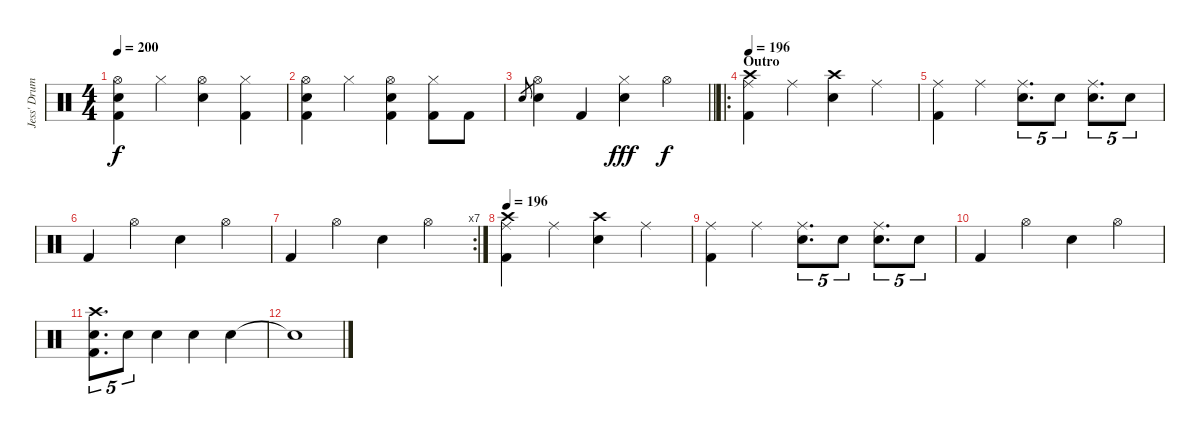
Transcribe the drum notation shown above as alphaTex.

\track ("Jess' Drums" "Jess' Drum") {instrument percussion}
\staff {score}
\articulation defaults
\ts (4 4)
\tempo 200
\clef neutral
\ks c
("Hi-Hat (open)" "Snare (hit) 2" "Kick (hit) 2").4{dy f} "Hi-Hat (closed)".4 ("Hi-Hat (open)" "Snare (hit) 2").4 ("Hi-Hat (closed)" "Kick (hit) 2").4 |
("Hi-Hat (open)" "Snare (hit) 2" "Kick (hit) 2").4 "Hi-Hat (closed)".4 ("Hi-Hat (open)" "Snare (hit) 2" "Kick (hit) 2").4 ("Hi-Hat (closed)" "Kick (hit) 2").8 "Kick (hit) 2".8 |
\barLineRight lightlight "Snare (hit) 2".8{gr}
("Hi-Hat (open)" "Snare (hit) 2").4 "Kick (hit) 2".4 ("Hi-Hat (closed)" "Snare (hit) 2").4{dy fff} "Hi-Hat (open)".4{dy f} |
\ro
\section ("" "Outro")
\tempo 196
("Crash high (hit)" "Ride (middle)" "Kick (hit) 2").4 "Ride (middle)".4 ("Crash high (hit)" "Snare (hit) 2").4 "Ride (middle)".4 |
("Ride (middle)" "Kick (hit) 2").4 "Ride (middle)".4 ("Ride (middle)" "Snare (hit) 2").8{d tu (5 4)} "Snare (hit) 2".8{tu (5 4)} ("Ride (middle)" "Snare (hit) 2").8{d tu (5 4)} "Snare (hit) 2".8{tu (5 4)} |
"Kick (hit) 2".4 "Hi-Hat (open)".4 "Snare (hit) 2".4 "Hi-Hat (open)".4 |
\rc 7 "Kick (hit) 2".4 "Hi-Hat (open)".4 "Snare (hit) 2".4 "Hi-Hat (open)".4
|
\tempo 196
("Crash high (hit)" "Ride (middle)" "Kick (hit) 2").4 "Ride (middle)".4 ("Crash high (hit)" "Snare (hit) 2").4 "Ride (middle)".4 |
("Ride (middle)" "Kick (hit) 2").4 "Ride (middle)".4 ("Ride (middle)" "Snare (hit) 2").8{d tu (5 4)} "Snare (hit) 2".8{tu (5 4)} ("Ride (middle)" "Snare (hit) 2").8{d tu (5 4)} "Snare (hit) 2".8{tu (5 4)} |
"Kick (hit) 2".4 "Hi-Hat (open)".4 "Snare (hit) 2".4 "Hi-Hat (open)".4 |
("Crash high (hit)" "Snare (hit) 2" "Kick (hit) 2").8{d tu (5 4)} "Snare (hit) 2".8{tu (5 4)} "Snare (hit) 2".4 "Snare (hit) 2".4 "Snare (hit) 2".4 |
"Snare (hit)"{t}.1
